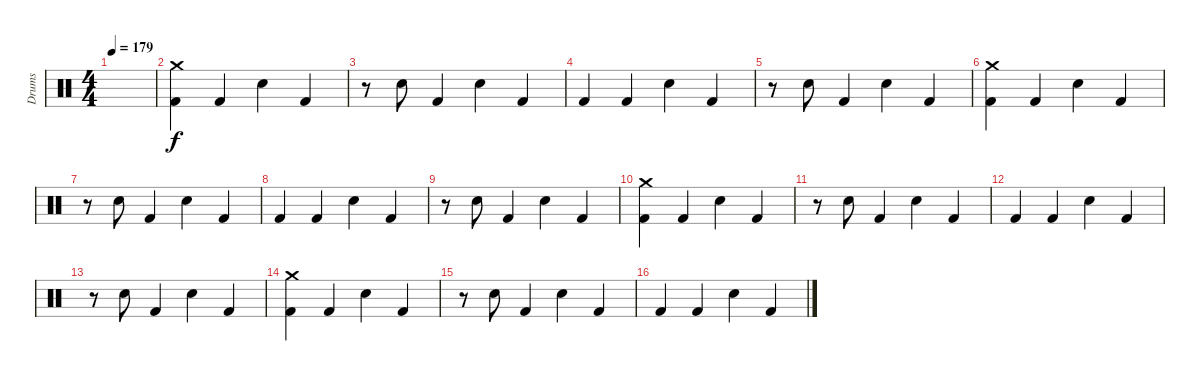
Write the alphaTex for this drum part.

\track ("Drums" "Drums") {instrument percussion}
\staff {score}
\articulation defaults
\ts (4 4)
\tempo 179
\clef neutral
\ks c
|
("Crash medium (hit)" "Kick (hit) 2").4 "Kick (hit) 2".4 "Snare (hit) 2".4 "Kick (hit) 2".4 |
r.8 "Snare (hit) 2".8 "Kick (hit) 2".4 "Snare (hit) 2".4 "Kick (hit) 2".4 |
"Kick (hit) 2".4 "Kick (hit) 2".4 "Snare (hit) 2".4 "Kick (hit) 2".4 |
r.8 "Snare (hit) 2".8 "Kick (hit) 2".4 "Snare (hit) 2".4 "Kick (hit) 2".4 |
("Crash medium (hit)" "Kick (hit) 2").4 "Kick (hit) 2".4 "Snare (hit) 2".4 "Kick (hit) 2".4 |
r.8 "Snare (hit) 2".8 "Kick (hit) 2".4 "Snare (hit) 2".4 "Kick (hit) 2".4 |
"Kick (hit) 2".4 "Kick (hit) 2".4 "Snare (hit) 2".4 "Kick (hit) 2".4 |
r.8 "Snare (hit) 2".8 "Kick (hit) 2".4 "Snare (hit) 2".4 "Kick (hit) 2".4 |
("Crash medium (hit)" "Kick (hit) 2").4 "Kick (hit) 2".4 "Snare (hit) 2".4 "Kick (hit) 2".4 |
r.8 "Snare (hit) 2".8 "Kick (hit) 2".4 "Snare (hit) 2".4 "Kick (hit) 2".4 |
"Kick (hit) 2".4 "Kick (hit) 2".4 "Snare (hit) 2".4 "Kick (hit) 2".4 |
r.8 "Snare (hit) 2".8 "Kick (hit) 2".4 "Snare (hit) 2".4 "Kick (hit) 2".4 |
("Crash medium (hit)" "Kick (hit) 2").4 "Kick (hit) 2".4 "Snare (hit) 2".4 "Kick (hit) 2".4 |
r.8 "Snare (hit) 2".8 "Kick (hit) 2".4 "Snare (hit) 2".4 "Kick (hit) 2".4 |
"Kick (hit) 2".4 "Kick (hit) 2".4 "Snare (hit) 2".4 "Kick (hit) 2".4
